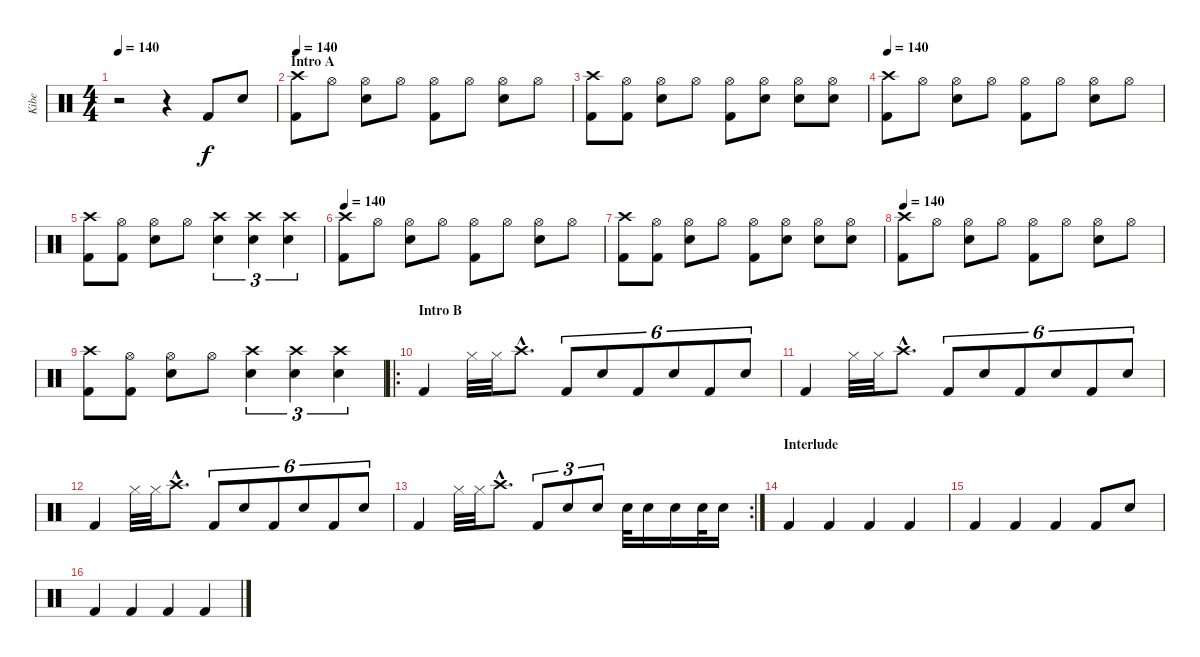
\track ("Kibe" "Kibe") {instrument percussion}
\staff {score}
\articulation defaults
\ts (4 4)
\tempo 140
\clef neutral
\ks c
r.2{dy f} r.4 "Kick (hit) 2".8 "Snare (hit) 2".8 |
\section ("" "Intro A")
\tempo 140
("Kick (hit) 2" "Crash high (hit)").8 "Hi-Hat (open)".8 ("Snare (hit) 2" "Hi-Hat (open)").8 "Hi-Hat (open)".8 ("Kick (hit) 2" "Hi-Hat (open)").8 "Hi-Hat (open)".8 ("Snare (hit) 2" "Hi-Hat (open)").8 "Hi-Hat (open)".8 |
("Kick (hit) 2" "Crash high (hit)").8 ("Kick (hit) 2" "Hi-Hat (open)").8 ("Snare (hit) 2" "Hi-Hat (open)").8 "Hi-Hat (open)".8 ("Kick (hit) 2" "Hi-Hat (open)").8 ("Snare (hit) 2" "Hi-Hat (open)").8 ("Snare (hit) 2" "Hi-Hat (open)").8 ("Snare (hit) 2" "Hi-Hat (open)").8 |
\tempo 140
("Kick (hit) 2" "Crash high (hit)").8 "Hi-Hat (open)".8 ("Snare (hit) 2" "Hi-Hat (open)").8 "Hi-Hat (open)".8 ("Kick (hit) 2" "Hi-Hat (open)").8 "Hi-Hat (open)".8 ("Snare (hit) 2" "Hi-Hat (open)").8 "Hi-Hat (open)".8 |
("Kick (hit) 2" "Crash high (hit)").8 ("Kick (hit) 2" "Hi-Hat (open)").8 ("Snare (hit) 2" "Hi-Hat (open)").8 "Hi-Hat (open)".8 ("Snare (hit) 2" "Crash high (hit)").4{tu (3 2)} ("Snare (hit) 2" "Crash high (hit)").4{tu (3 2)} ("Snare (hit) 2" "Crash high (hit)").4{tu (3 2)} |
\tempo 140
("Kick (hit) 2" "Crash high (hit)").8 "Hi-Hat (open)".8 ("Snare (hit) 2" "Hi-Hat (open)").8 "Hi-Hat (open)".8 ("Kick (hit) 2" "Hi-Hat (open)").8 "Hi-Hat (open)".8 ("Snare (hit) 2" "Hi-Hat (open)").8 "Hi-Hat (open)".8 |
("Kick (hit) 2" "Crash high (hit)").8 ("Kick (hit) 2" "Hi-Hat (open)").8 ("Snare (hit) 2" "Hi-Hat (open)").8 "Hi-Hat (open)".8 ("Kick (hit) 2" "Hi-Hat (open)").8 ("Snare (hit) 2" "Hi-Hat (open)").8 ("Snare (hit) 2" "Hi-Hat (open)").8 ("Snare (hit) 2" "Hi-Hat (open)").8 |
\tempo 140
("Kick (hit) 2" "Crash high (hit)").8 "Hi-Hat (open)".8 ("Snare (hit) 2" "Hi-Hat (open)").8 "Hi-Hat (open)".8 ("Kick (hit) 2" "Hi-Hat (open)").8 "Hi-Hat (open)".8 ("Snare (hit) 2" "Hi-Hat (open)").8 "Hi-Hat (open)".8 |
("Kick (hit) 2" "Crash high (hit)").8 ("Kick (hit) 2" "Hi-Hat (open)").8 ("Snare (hit) 2" "Hi-Hat (open)").8 "Hi-Hat (open)".8 ("Snare (hit) 2" "Crash high (hit)").4{tu (3 2)} ("Snare (hit) 2" "Crash high (hit)").4{tu (3 2)} ("Snare (hit) 2" "Crash high (hit)").4{tu (3 2)} |
\ro
\section ("" "Intro B")
"Kick (hit) 2".4 "Hi-Hat (closed)".32 "Hi-Hat (closed)".32 "Crash high (hit)"{hac}.8{d} "Kick (hit) 2".8{tu (6 4)} "Snare (hit) 2".8{tu (6 4)} "Kick (hit) 2".8{tu (6 4)} "Snare (hit) 2".8{tu (6 4)} "Kick (hit) 2".8{tu (6 4)} "Snare (hit) 2".8{tu (6 4)} |
"Kick (hit) 2".4 "Hi-Hat (closed)".32 "Hi-Hat (closed)".32 "Crash high (hit)"{hac}.8{d} "Kick (hit) 2".8{tu (6 4)} "Snare (hit) 2".8{tu (6 4)} "Kick (hit) 2".8{tu (6 4)} "Snare (hit) 2".8{tu (6 4)} "Kick (hit) 2".8{tu (6 4)} "Snare (hit) 2".8{tu (6 4)} |
"Kick (hit) 2".4 "Hi-Hat (closed)".32 "Hi-Hat (closed)".32 "Crash high (hit)"{hac}.8{d} "Kick (hit) 2".8{tu (6 4)} "Snare (hit) 2".8{tu (6 4)} "Kick (hit) 2".8{tu (6 4)} "Snare (hit) 2".8{tu (6 4)} "Kick (hit) 2".8{tu (6 4)} "Snare (hit) 2".8{tu (6 4)} |
\rc 2 "Kick (hit) 2".4 "Hi-Hat (closed)".32 "Hi-Hat (closed)".32 "Crash high (hit)"{hac}.8{d} "Kick (hit) 2".8{tu (3 2)} "Snare (hit) 2".8{tu (3 2)} "Snare (hit) 2".8{tu (3 2)} "Snare (hit) 2".32 "Snare (hit) 2".16 "Snare (hit) 2".16 "Snare (hit) 2".32 "Snare (hit) 2".16
|
\section ("" "Interlude")
"Kick (hit) 2".4 "Kick (hit) 2".4 "Kick (hit) 2".4 "Kick (hit) 2".4 |
"Kick (hit) 2".4 "Kick (hit) 2".4 "Kick (hit) 2".4 "Kick (hit) 2".8 "Snare (hit) 2".8 |
"Kick (hit) 2".4 "Kick (hit) 2".4 "Kick (hit) 2".4 "Kick (hit) 2".4
